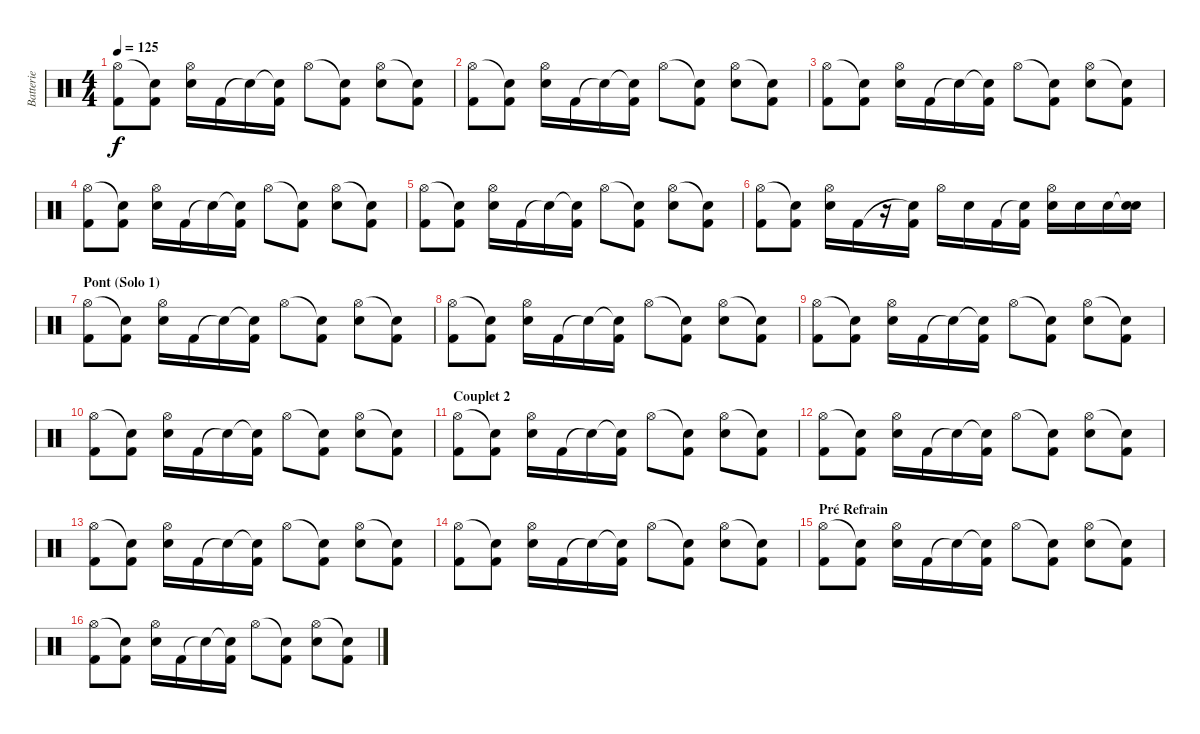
\track ("Batterie" "Batterie") {instrument percussion}
\staff {score}
\articulation defaults
\ts (4 4)
\tempo 125
\clef neutral
\ks c
("Hi-Hat (open)" "Kick (hit) 2").8{dy f} ("Snare (hit)"{t} "Kick (hit) 2").8 ("Hi-Hat (open)" "Electric Snare (hit)").16 "Kick (hit) 2".16 "Snare (hit)"{t}.16 ("Snare (hit)"{t} "Kick (hit) 2").16 "Hi-Hat (open)".8 ("Snare (hit)"{t} "Kick (hit) 2").8 ("Hi-Hat (open)" "Electric Snare (hit)").8 ("Snare (hit)"{t} "Kick (hit) 2").8 |
("Hi-Hat (open)" "Kick (hit) 2").8 ("Snare (hit)"{t} "Kick (hit) 2").8 ("Hi-Hat (open)" "Electric Snare (hit)").16 "Kick (hit) 2".16 "Snare (hit)"{t}.16 ("Snare (hit)"{t} "Kick (hit) 2").16 "Hi-Hat (open)".8 ("Snare (hit)"{t} "Kick (hit) 2").8 ("Hi-Hat (open)" "Electric Snare (hit)").8 ("Snare (hit)"{t} "Kick (hit) 2").8 |
("Hi-Hat (open)" "Kick (hit) 2").8 ("Snare (hit)"{t} "Kick (hit) 2").8 ("Hi-Hat (open)" "Electric Snare (hit)").16 "Kick (hit) 2".16 "Snare (hit)"{t}.16 ("Snare (hit)"{t} "Kick (hit) 2").16 "Hi-Hat (open)".8 ("Snare (hit)"{t} "Kick (hit) 2").8 ("Hi-Hat (open)" "Electric Snare (hit)").8 ("Snare (hit)"{t} "Kick (hit) 2").8 |
("Hi-Hat (open)" "Kick (hit) 2").8 ("Snare (hit)"{t} "Kick (hit) 2").8 ("Hi-Hat (open)" "Electric Snare (hit)").16 "Kick (hit) 2".16 "Snare (hit)"{t}.16 ("Snare (hit)"{t} "Kick (hit) 2").16 "Hi-Hat (open)".8 ("Snare (hit)"{t} "Kick (hit) 2").8 ("Hi-Hat (open)" "Electric Snare (hit)").8 ("Snare (hit)"{t} "Kick (hit) 2").8 |
("Hi-Hat (open)" "Kick (hit) 2").8 ("Snare (hit)"{t} "Kick (hit) 2").8 ("Hi-Hat (open)" "Electric Snare (hit)").16 "Kick (hit) 2".16 "Snare (hit)"{t}.16 ("Snare (hit)"{t} "Kick (hit) 2").16 "Hi-Hat (open)".8 ("Snare (hit)"{t} "Kick (hit) 2").8 ("Hi-Hat (open)" "Electric Snare (hit)").8 ("Snare (hit)"{t} "Kick (hit) 2").8 |
("Hi-Hat (open)" "Kick (hit) 2").8 ("Snare (hit)"{t} "Kick (hit) 2").8 ("Hi-Hat (open)" "Electric Snare (hit)").16 "Kick (hit) 2".16 r.16 ("Snare (hit)"{t} "Kick (hit) 2").16 "Hi-Hat (open)".16 "Electric Snare (hit)".16 "Kick (hit) 2".16 ("Snare (hit)"{t} "Kick (hit) 2").16 ("Hi-Hat (open)" "Electric Snare (hit)").16 "Electric Snare (hit)".16 "Electric Snare (hit)".16 ("Snare (hit)"{t} "Electric Snare (hit)").16 |
\section ("" "Pont (Solo 1)")
("Hi-Hat (open)" "Kick (hit) 2").8 ("Snare (hit)"{t} "Kick (hit) 2").8 ("Hi-Hat (open)" "Electric Snare (hit)").16 "Kick (hit) 2".16 "Snare (hit)"{t}.16 ("Snare (hit)"{t} "Kick (hit) 2").16 "Hi-Hat (open)".8 ("Snare (hit)"{t} "Kick (hit) 2").8 ("Hi-Hat (open)" "Electric Snare (hit)").8 ("Snare (hit)"{t} "Kick (hit) 2").8 |
("Hi-Hat (open)" "Kick (hit) 2").8 ("Snare (hit)"{t} "Kick (hit) 2").8 ("Hi-Hat (open)" "Electric Snare (hit)").16 "Kick (hit) 2".16 "Snare (hit)"{t}.16 ("Snare (hit)"{t} "Kick (hit) 2").16 "Hi-Hat (open)".8 ("Snare (hit)"{t} "Kick (hit) 2").8 ("Hi-Hat (open)" "Electric Snare (hit)").8 ("Snare (hit)"{t} "Kick (hit) 2").8 |
("Hi-Hat (open)" "Kick (hit) 2").8 ("Snare (hit)"{t} "Kick (hit) 2").8 ("Hi-Hat (open)" "Electric Snare (hit)").16 "Kick (hit) 2".16 "Snare (hit)"{t}.16 ("Snare (hit)"{t} "Kick (hit) 2").16 "Hi-Hat (open)".8 ("Snare (hit)"{t} "Kick (hit) 2").8 ("Hi-Hat (open)" "Electric Snare (hit)").8 ("Snare (hit)"{t} "Kick (hit) 2").8 |
("Hi-Hat (open)" "Kick (hit) 2").8 ("Snare (hit)"{t} "Kick (hit) 2").8 ("Hi-Hat (open)" "Electric Snare (hit)").16 "Kick (hit) 2".16 "Snare (hit)"{t}.16 ("Snare (hit)"{t} "Kick (hit) 2").16 "Hi-Hat (open)".8 ("Snare (hit)"{t} "Kick (hit) 2").8 ("Hi-Hat (open)" "Electric Snare (hit)").8 ("Snare (hit)"{t} "Kick (hit) 2").8 |
\section ("" "Couplet 2")
("Hi-Hat (open)" "Kick (hit) 2").8 ("Snare (hit)"{t} "Kick (hit) 2").8 ("Hi-Hat (open)" "Electric Snare (hit)").16 "Kick (hit) 2".16 "Snare (hit)"{t}.16 ("Snare (hit)"{t} "Kick (hit) 2").16 "Hi-Hat (open)".8 ("Snare (hit)"{t} "Kick (hit) 2").8 ("Hi-Hat (open)" "Electric Snare (hit)").8 ("Snare (hit)"{t} "Kick (hit) 2").8 |
("Hi-Hat (open)" "Kick (hit) 2").8 ("Snare (hit)"{t} "Kick (hit) 2").8 ("Hi-Hat (open)" "Electric Snare (hit)").16 "Kick (hit) 2".16 "Snare (hit)"{t}.16 ("Snare (hit)"{t} "Kick (hit) 2").16 "Hi-Hat (open)".8 ("Snare (hit)"{t} "Kick (hit) 2").8 ("Hi-Hat (open)" "Electric Snare (hit)").8 ("Snare (hit)"{t} "Kick (hit) 2").8 |
("Hi-Hat (open)" "Kick (hit) 2").8 ("Snare (hit)"{t} "Kick (hit) 2").8 ("Hi-Hat (open)" "Electric Snare (hit)").16 "Kick (hit) 2".16 "Snare (hit)"{t}.16 ("Snare (hit)"{t} "Kick (hit) 2").16 "Hi-Hat (open)".8 ("Snare (hit)"{t} "Kick (hit) 2").8 ("Hi-Hat (open)" "Electric Snare (hit)").8 ("Snare (hit)"{t} "Kick (hit) 2").8 |
("Hi-Hat (open)" "Kick (hit) 2").8 ("Snare (hit)"{t} "Kick (hit) 2").8 ("Hi-Hat (open)" "Electric Snare (hit)").16 "Kick (hit) 2".16 "Snare (hit)"{t}.16 ("Snare (hit)"{t} "Kick (hit) 2").16 "Hi-Hat (open)".8 ("Snare (hit)"{t} "Kick (hit) 2").8 ("Hi-Hat (open)" "Electric Snare (hit)").8 ("Snare (hit)"{t} "Kick (hit) 2").8 |
\section ("" "Pré Refrain")
("Hi-Hat (open)" "Kick (hit) 2").8 ("Snare (hit)"{t} "Kick (hit) 2").8 ("Hi-Hat (open)" "Electric Snare (hit)").16 "Kick (hit) 2".16 "Snare (hit)"{t}.16 ("Snare (hit)"{t} "Kick (hit) 2").16 "Hi-Hat (open)".8 ("Snare (hit)"{t} "Kick (hit) 2").8 ("Hi-Hat (open)" "Electric Snare (hit)").8 ("Snare (hit)"{t} "Kick (hit) 2").8 |
("Hi-Hat (open)" "Kick (hit) 2").8 ("Snare (hit)"{t} "Kick (hit) 2").8 ("Hi-Hat (open)" "Electric Snare (hit)").16 "Kick (hit) 2".16 "Snare (hit)"{t}.16 ("Snare (hit)"{t} "Kick (hit) 2").16 "Hi-Hat (open)".8 ("Snare (hit)"{t} "Kick (hit) 2").8 ("Hi-Hat (open)" "Electric Snare (hit)").8 ("Snare (hit)"{t} "Kick (hit) 2").8
